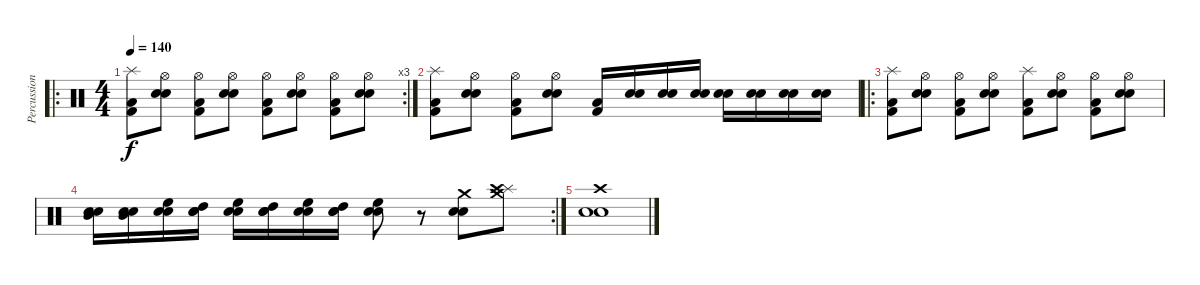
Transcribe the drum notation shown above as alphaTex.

\track ("Percussions" "Percussion") {instrument percussion}
\staff {score}
\articulation defaults
\ro
\rc 3
\ts (4 4)
\tempo 140
\clef neutral
\ks c
("Splash (hit)" "Kick (hit) 2" "Low Floor Tom (hit)").8{dy f} ("Hi-Hat (open)" "Snare (hit) 2" "Electric Snare (hit)").8 ("Hi-Hat (open)" "Kick (hit) 2" "Low Floor Tom (hit)").8 ("Hi-Hat (open)" "Snare (hit) 2" "Electric Snare (hit)").8 ("Hi-Hat (open)" "Kick (hit) 2" "Low Floor Tom (hit)").8 ("Hi-Hat (open)" "Snare (hit) 2" "Electric Snare (hit)").8 ("Hi-Hat (open)" "Kick (hit) 2" "Low Floor Tom (hit)").8 ("Hi-Hat (open)" "Snare (hit) 2" "Electric Snare (hit)").8 |
("Splash (hit)" "Kick (hit) 2" "Low Floor Tom (hit)").8 ("Hi-Hat (open)" "Snare (hit) 2" "Electric Snare (hit)").8 ("Hi-Hat (open)" "Kick (hit) 2" "Low Floor Tom (hit)").8 ("Hi-Hat (open)" "Snare (hit) 2" "Electric Snare (hit)").8 ("Kick (hit) 2" "Low Floor Tom (hit)").16 ("Snare (hit) 2" "Electric Snare (hit)").16 ("Snare (hit) 2" "Electric Snare (hit)").16 ("Snare (hit) 2" "Electric Snare (hit)").16 ("Snare (hit) 2" "Electric Snare (hit)").16 ("Snare (hit) 2" "Electric Snare (hit)").16 ("Snare (hit) 2" "Electric Snare (hit)").16 ("Snare (hit) 2" "Electric Snare (hit)").16 |
\ro
("Splash (hit)" "Kick (hit) 2" "Low Floor Tom (hit)").8 ("Hi-Hat (open)" "Snare (hit) 2" "Electric Snare (hit)").8 ("Hi-Hat (open)" "Kick (hit) 2" "Low Floor Tom (hit)").8 ("Hi-Hat (open)" "Snare (hit) 2" "Electric Snare (hit)").8 ("Splash (hit)" "Kick (hit) 2" "Low Floor Tom (hit)").8 ("Hi-Hat (open)" "Snare (hit) 2" "Electric Snare (hit)").8 ("Hi-Hat (open)" "Kick (hit) 2" "Low Floor Tom (hit)").8 ("Hi-Hat (open)" "Snare (hit) 2" "Electric Snare (hit)").8 |
\rc 2
("Mid Tom (hit)" "Snare (hit) 2" "Electric Snare (hit)").16 ("Mid Tom (hit)" "Snare (hit) 2" "Electric Snare (hit)").16 ("High Floor Tom (hit)" "Snare (hit) 2" "Electric Snare (hit)").16 ("High Tom (hit)" "Snare (hit) 2" "Electric Snare (hit)").16 ("High Floor Tom (hit)" "Snare (hit) 2" "Electric Snare (hit)").16 ("High Tom (hit)" "Snare (hit) 2" "Electric Snare (hit)").16 ("High Floor Tom (hit)" "Snare (hit) 2" "Electric Snare (hit)").16 ("High Tom (hit)" "Snare (hit) 2" "Electric Snare (hit)").16 ("High Floor Tom (hit)" "Snare (hit) 2" "Electric Snare (hit)").8 r.8 ("Crash medium (hit)" "Snare (hit) 2" "Electric Snare (hit)").8 ("Splash (hit)" "Crash high (hit)" "Crash medium (hit)").8 |
("Crash high (hit)" "Snare (hit) 2" "Electric Snare (hit)").1
